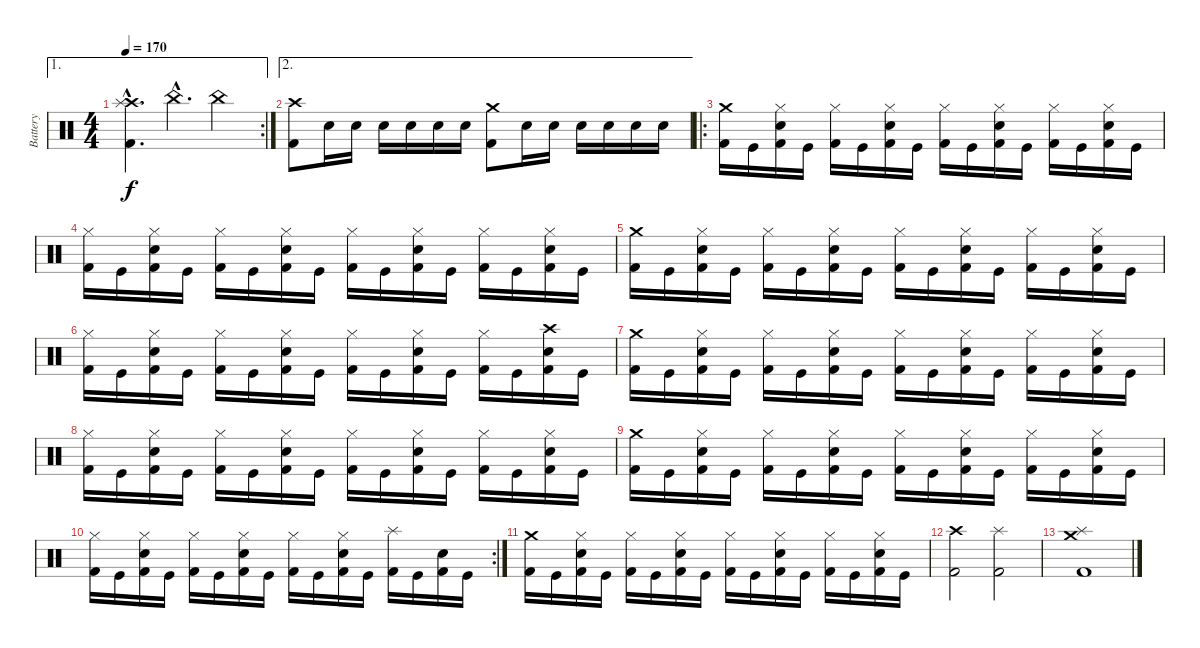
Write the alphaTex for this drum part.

\track ("Battery" "Battery") {instrument percussion}
\staff {score}
\articulation defaults
\ae 1
\rc 2
\ts (4 4)
\tempo 170
\clef neutral
\ks c
("Crash high (hit)"{hac} "Splash (hit)"{hac} "Kick (hit) 2"{hac}).4{d dy f} "China (hit)"{hac}.4{d} "China (hit)".4 |
\ae 2
("Crash high (hit)" "Kick (hit) 2").8 "Snare (hit) 2".16 "Snare (hit) 2".16 "Snare (hit) 2".16 "Snare (hit) 2".16 "Snare (hit) 2".16 "Snare (hit) 2".16 ("Crash medium (hit)" "Kick (hit) 2").8 "Snare (hit) 2".16 "Snare (hit) 2".16 "Snare (hit) 2".16 "Snare (hit) 2".16 "Snare (hit) 2".16 "Snare (hit) 2".16 |
\ro
("Crash medium (hit)" "Kick (hit) 2").16 "Kick (hit)".16 ("Hi-Hat (closed)" "Snare (hit) 2" "Kick (hit) 2").16 "Kick (hit)".16 ("Hi-Hat (closed)" "Kick (hit) 2").16 "Kick (hit)".16 ("Hi-Hat (closed)" "Snare (hit) 2" "Kick (hit) 2").16 "Kick (hit)".16 ("Hi-Hat (closed)" "Kick (hit) 2").16 "Kick (hit)".16 ("Hi-Hat (closed)" "Snare (hit) 2" "Kick (hit) 2").16 "Kick (hit)".16 ("Hi-Hat (closed)" "Kick (hit) 2").16 "Kick (hit)".16 ("Hi-Hat (closed)" "Snare (hit) 2" "Kick (hit) 2").16 "Kick (hit)".16 |
("Hi-Hat (closed)" "Kick (hit) 2").16 "Kick (hit)".16 ("Hi-Hat (closed)" "Snare (hit) 2" "Kick (hit) 2").16 "Kick (hit)".16 ("Hi-Hat (closed)" "Kick (hit) 2").16 "Kick (hit)".16 ("Hi-Hat (closed)" "Snare (hit) 2" "Kick (hit) 2").16 "Kick (hit)".16 ("Hi-Hat (closed)" "Kick (hit) 2").16 "Kick (hit)".16 ("Hi-Hat (closed)" "Snare (hit) 2" "Kick (hit) 2").16 "Kick (hit)".16 ("Hi-Hat (closed)" "Kick (hit) 2").16 "Kick (hit)".16 ("Hi-Hat (closed)" "Snare (hit) 2" "Kick (hit) 2").16 "Kick (hit)".16 |
("Crash medium (hit)" "Kick (hit) 2").16 "Kick (hit)".16 ("Hi-Hat (closed)" "Snare (hit) 2" "Kick (hit) 2").16 "Kick (hit)".16 ("Hi-Hat (closed)" "Kick (hit) 2").16 "Kick (hit)".16 ("Hi-Hat (closed)" "Snare (hit) 2" "Kick (hit) 2").16 "Kick (hit)".16 ("Hi-Hat (closed)" "Kick (hit) 2").16 "Kick (hit)".16 ("Hi-Hat (closed)" "Snare (hit) 2" "Kick (hit) 2").16 "Kick (hit)".16 ("Hi-Hat (closed)" "Kick (hit) 2").16 "Kick (hit)".16 ("Hi-Hat (closed)" "Snare (hit) 2" "Kick (hit) 2").16 "Kick (hit)".16 |
("Hi-Hat (closed)" "Kick (hit) 2").16 "Kick (hit)".16 ("Hi-Hat (closed)" "Snare (hit) 2" "Kick (hit) 2").16 "Kick (hit)".16 ("Hi-Hat (closed)" "Kick (hit) 2").16 "Kick (hit)".16 ("Hi-Hat (closed)" "Snare (hit) 2" "Kick (hit) 2").16 "Kick (hit)".16 ("Hi-Hat (closed)" "Kick (hit) 2").16 "Kick (hit)".16 ("Hi-Hat (closed)" "Snare (hit) 2" "Kick (hit) 2").16 "Kick (hit)".16 ("Hi-Hat (closed)" "Kick (hit) 2").16 "Kick (hit)".16 ("Crash high (hit)" "Snare (hit) 2" "Kick (hit) 2").16 "Kick (hit)".16 |
("Crash medium (hit)" "Kick (hit) 2").16 "Kick (hit)".16 ("Hi-Hat (closed)" "Snare (hit) 2" "Kick (hit) 2").16 "Kick (hit)".16 ("Hi-Hat (closed)" "Kick (hit) 2").16 "Kick (hit)".16 ("Hi-Hat (closed)" "Snare (hit) 2" "Kick (hit) 2").16 "Kick (hit)".16 ("Hi-Hat (closed)" "Kick (hit) 2").16 "Kick (hit)".16 ("Hi-Hat (closed)" "Snare (hit) 2" "Kick (hit) 2").16 "Kick (hit)".16 ("Hi-Hat (closed)" "Kick (hit) 2").16 "Kick (hit)".16 ("Hi-Hat (closed)" "Snare (hit) 2" "Kick (hit) 2").16 "Kick (hit)".16 |
("Hi-Hat (closed)" "Kick (hit) 2").16 "Kick (hit)".16 ("Hi-Hat (closed)" "Snare (hit) 2" "Kick (hit) 2").16 "Kick (hit)".16 ("Hi-Hat (closed)" "Kick (hit) 2").16 "Kick (hit)".16 ("Hi-Hat (closed)" "Snare (hit) 2" "Kick (hit) 2").16 "Kick (hit)".16 ("Hi-Hat (closed)" "Kick (hit) 2").16 "Kick (hit)".16 ("Hi-Hat (closed)" "Snare (hit) 2" "Kick (hit) 2").16 "Kick (hit)".16 ("Hi-Hat (closed)" "Kick (hit) 2").16 "Kick (hit)".16 ("Hi-Hat (closed)" "Snare (hit) 2" "Kick (hit) 2").16 "Kick (hit)".16 |
("Crash medium (hit)" "Kick (hit) 2").16 "Kick (hit)".16 ("Hi-Hat (closed)" "Snare (hit) 2" "Kick (hit) 2").16 "Kick (hit)".16 ("Hi-Hat (closed)" "Kick (hit) 2").16 "Kick (hit)".16 ("Hi-Hat (closed)" "Snare (hit) 2" "Kick (hit) 2").16 "Kick (hit)".16 ("Hi-Hat (closed)" "Kick (hit) 2").16 "Kick (hit)".16 ("Hi-Hat (closed)" "Snare (hit) 2" "Kick (hit) 2").16 "Kick (hit)".16 ("Hi-Hat (closed)" "Kick (hit) 2").16 "Kick (hit)".16 ("Hi-Hat (closed)" "Snare (hit) 2" "Kick (hit) 2").16 "Kick (hit)".16 |
\rc 2
("Hi-Hat (closed)" "Kick (hit) 2").16 "Kick (hit)".16 ("Hi-Hat (closed)" "Snare (hit) 2" "Kick (hit) 2").16 "Kick (hit)".16 ("Hi-Hat (closed)" "Kick (hit) 2").16 "Kick (hit)".16 ("Hi-Hat (closed)" "Snare (hit) 2" "Kick (hit) 2").16 "Kick (hit)".16 ("Hi-Hat (closed)" "Kick (hit) 2").16 "Kick (hit)".16 ("Hi-Hat (closed)" "Snare (hit) 2" "Kick (hit) 2").16 "Kick (hit)".16 ("Splash (hit)" "Kick (hit) 2").16 "Kick (hit)".16 ("Snare (hit) 2" "Kick (hit) 2").16 "Kick (hit)".16 |
("Crash medium (hit)" "Kick (hit) 2").16 "Kick (hit)".16 ("Hi-Hat (closed)" "Snare (hit) 2" "Kick (hit) 2").16 "Kick (hit)".16 ("Hi-Hat (closed)" "Kick (hit) 2").16 "Kick (hit)".16 ("Hi-Hat (closed)" "Snare (hit) 2" "Kick (hit) 2").16 "Kick (hit)".16 ("Hi-Hat (closed)" "Kick (hit) 2").16 "Kick (hit)".16 ("Hi-Hat (closed)" "Snare (hit) 2" "Kick (hit) 2").16 "Kick (hit)".16 ("Hi-Hat (closed)" "Kick (hit) 2").16 "Kick (hit)".16 ("Hi-Hat (closed)" "Snare (hit) 2" "Kick (hit) 2").16 "Kick (hit)".16 |
("Crash high (hit)" "Kick (hit) 2").2 ("Splash (hit)" "Kick (hit) 2").2 |
("Splash (hit)" "Crash medium (hit)" "Kick (hit) 2").1
